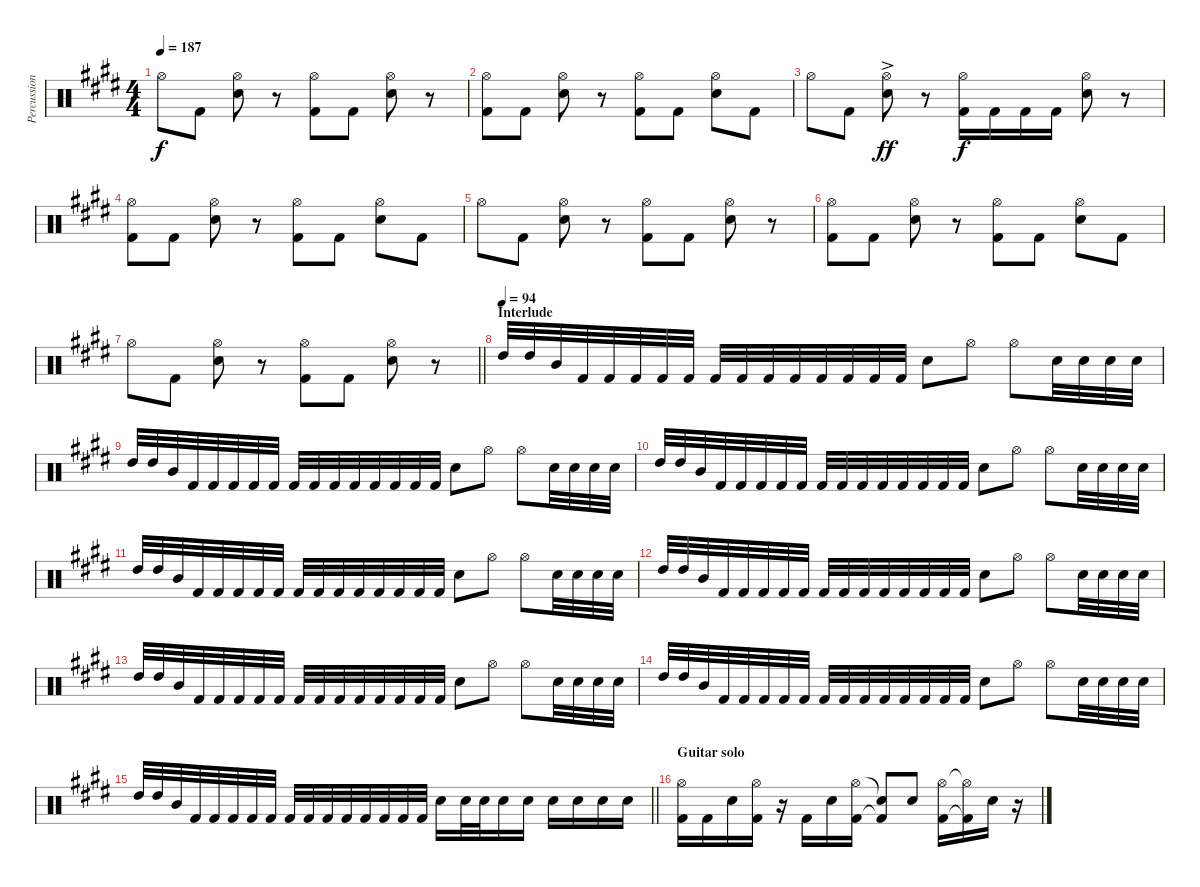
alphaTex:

\track ("Percussion" "Percussion") {instrument percussion}
\staff {score}
\articulation defaults
\ts (4 4)
\tempo 187
\clef neutral
\ks e "Hi-Hat (open)".8{dy f} "Kick (hit) 2".8
("Hi-Hat (open)" "Snare (hit) 2").8 r.8 ("Hi-Hat (open)" "Kick (hit) 2").8 "Kick (hit) 2".8 ("Hi-Hat (open)" "Snare (hit) 2").8 r.8 |
("Hi-Hat (open)" "Kick (hit) 2").8 "Kick (hit) 2".8 ("Hi-Hat (open)" "Snare (hit) 2").8 r.8 ("Hi-Hat (open)" "Kick (hit) 2").8 "Kick (hit) 2".8 ("Hi-Hat (open)" "Snare (hit) 2").8 "Kick (hit) 2".8 |
"Hi-Hat (open)".8 "Kick (hit) 2".8 ("Hi-Hat (open)"{ac} "Snare (hit) 2").8{dy ff} r.8 ("Hi-Hat (open)" "Kick (hit) 2").16{dy f} "Kick (hit) 2".16 "Kick (hit) 2".16 "Kick (hit) 2".16 ("Hi-Hat (open)" "Snare (hit) 2").8 r.8 |
("Hi-Hat (open)" "Kick (hit) 2").8 "Kick (hit) 2".8 ("Hi-Hat (open)" "Snare (hit) 2").8 r.8 ("Hi-Hat (open)" "Kick (hit) 2").8 "Kick (hit) 2".8 ("Hi-Hat (open)" "Snare (hit) 2").8 "Kick (hit) 2".8 |
"Hi-Hat (open)".8 "Kick (hit) 2".8 ("Hi-Hat (open)" "Snare (hit) 2").8 r.8 ("Hi-Hat (open)" "Kick (hit) 2").8 "Kick (hit) 2".8 ("Hi-Hat (open)" "Snare (hit) 2").8 r.8 |
("Hi-Hat (open)" "Kick (hit) 2").8 "Kick (hit) 2".8 ("Hi-Hat (open)" "Snare (hit) 2").8 r.8 ("Hi-Hat (open)" "Kick (hit) 2").8 "Kick (hit) 2".8 ("Hi-Hat (open)" "Snare (hit) 2").8 "Kick (hit) 2".8 |
\barLineRight lightlight "Hi-Hat (open)".8 "Kick (hit) 2".8
("Hi-Hat (open)" "Snare (hit) 2").8 r.8 ("Hi-Hat (open)" "Kick (hit) 2").8 "Kick (hit) 2".8 ("Hi-Hat (open)" "Snare (hit) 2").8 r.8 |
\section ("" "Interlude")
\tempo (94)
"High Tom (hit)".32 "High Tom (hit)".32 "Mid Tom (hit)".32 "Kick (hit) 2".32 "Kick (hit) 2".32 "Kick (hit) 2".32 "Kick (hit) 2".32 "Kick (hit) 2".32 "Kick (hit) 2".32 "Kick (hit) 2".32 "Kick (hit) 2".32 "Kick (hit) 2".32 "Kick (hit) 2".32 "Kick (hit) 2".32 "Kick (hit) 2".32 "Kick (hit) 2".32 "Snare (hit) 2".8 "Hi-Hat (open)".8 "Hi-Hat (open)".8 "Snare (hit) 2".32 "Snare (hit) 2".32 "Snare (hit) 2".32 "Snare (hit) 2".32 |
"High Tom (hit)".32 "High Tom (hit)".32 "Mid Tom (hit)".32 "Kick (hit) 2".32 "Kick (hit) 2".32 "Kick (hit) 2".32 "Kick (hit) 2".32 "Kick (hit) 2".32 "Kick (hit) 2".32 "Kick (hit) 2".32 "Kick (hit) 2".32 "Kick (hit) 2".32 "Kick (hit) 2".32 "Kick (hit) 2".32 "Kick (hit) 2".32 "Kick (hit) 2".32 "Snare (hit) 2".8 "Hi-Hat (open)".8 "Hi-Hat (open)".8 "Snare (hit) 2".32 "Snare (hit) 2".32 "Snare (hit) 2".32 "Snare (hit) 2".32 |
"High Tom (hit)".32 "High Tom (hit)".32 "Mid Tom (hit)".32 "Kick (hit) 2".32 "Kick (hit) 2".32 "Kick (hit) 2".32 "Kick (hit) 2".32 "Kick (hit) 2".32 "Kick (hit) 2".32 "Kick (hit) 2".32 "Kick (hit) 2".32 "Kick (hit) 2".32 "Kick (hit) 2".32 "Kick (hit) 2".32 "Kick (hit) 2".32 "Kick (hit) 2".32 "Snare (hit) 2".8 "Hi-Hat (open)".8 "Hi-Hat (open)".8 "Snare (hit) 2".32 "Snare (hit) 2".32 "Snare (hit) 2".32 "Snare (hit) 2".32 |
"High Tom (hit)".32 "High Tom (hit)".32 "Mid Tom (hit)".32 "Kick (hit) 2".32 "Kick (hit) 2".32 "Kick (hit) 2".32 "Kick (hit) 2".32 "Kick (hit) 2".32 "Kick (hit) 2".32 "Kick (hit) 2".32 "Kick (hit) 2".32 "Kick (hit) 2".32 "Kick (hit) 2".32 "Kick (hit) 2".32 "Kick (hit) 2".32 "Kick (hit) 2".32 "Snare (hit) 2".8 "Hi-Hat (open)".8 "Hi-Hat (open)".8 "Snare (hit) 2".32 "Snare (hit) 2".32 "Snare (hit) 2".32 "Snare (hit) 2".32 |
"High Tom (hit)".32 "High Tom (hit)".32 "Mid Tom (hit)".32 "Kick (hit) 2".32 "Kick (hit) 2".32 "Kick (hit) 2".32 "Kick (hit) 2".32 "Kick (hit) 2".32 "Kick (hit) 2".32 "Kick (hit) 2".32 "Kick (hit) 2".32 "Kick (hit) 2".32 "Kick (hit) 2".32 "Kick (hit) 2".32 "Kick (hit) 2".32 "Kick (hit) 2".32 "Snare (hit) 2".8 "Hi-Hat (open)".8 "Hi-Hat (open)".8 "Snare (hit) 2".32 "Snare (hit) 2".32 "Snare (hit) 2".32 "Snare (hit) 2".32 |
"High Tom (hit)".32 "High Tom (hit)".32 "Mid Tom (hit)".32 "Kick (hit) 2".32 "Kick (hit) 2".32 "Kick (hit) 2".32 "Kick (hit) 2".32 "Kick (hit) 2".32 "Kick (hit) 2".32 "Kick (hit) 2".32 "Kick (hit) 2".32 "Kick (hit) 2".32 "Kick (hit) 2".32 "Kick (hit) 2".32 "Kick (hit) 2".32 "Kick (hit) 2".32 "Snare (hit) 2".8 "Hi-Hat (open)".8 "Hi-Hat (open)".8 "Snare (hit) 2".32 "Snare (hit) 2".32 "Snare (hit) 2".32 "Snare (hit) 2".32 |
"High Tom (hit)".32 "High Tom (hit)".32 "Mid Tom (hit)".32 "Kick (hit) 2".32 "Kick (hit) 2".32 "Kick (hit) 2".32 "Kick (hit) 2".32 "Kick (hit) 2".32 "Kick (hit) 2".32 "Kick (hit) 2".32 "Kick (hit) 2".32 "Kick (hit) 2".32 "Kick (hit) 2".32 "Kick (hit) 2".32 "Kick (hit) 2".32 "Kick (hit) 2".32 "Snare (hit) 2".8 "Hi-Hat (open)".8 "Hi-Hat (open)".8 "Snare (hit) 2".32 "Snare (hit) 2".32 "Snare (hit) 2".32 "Snare (hit) 2".32 |
\barLineRight lightlight "High Tom (hit)".32 "High Tom (hit)".32 "Mid Tom (hit)".32 "Kick (hit) 2".32 "Kick (hit) 2".32 "Kick (hit) 2".32 "Kick (hit) 2".32 "Kick (hit) 2".32 "Kick (hit) 2".32 "Kick (hit) 2".32 "Kick (hit) 2".32 "Kick (hit) 2".32 "Kick (hit) 2".32 "Kick (hit) 2".32 "Kick (hit) 2".32 "Kick (hit) 2".32 "Snare (hit) 2".16 "Snare (hit) 2".32 "Snare (hit) 2".32 "Snare (hit) 2".16 "Snare (hit) 2".16 "Snare (hit) 2".16 "Snare (hit) 2".16 "Snare (hit) 2".16 "Snare (hit) 2".16
|
\section ("" "Guitar solo")
("Hi-Hat (open)" "Kick (hit) 2").16 "Kick (hit) 2".16 "Snare (hit) 2".16 ("Hi-Hat (open)" "Kick (hit) 2").16 r.16 "Kick (hit) 2".16 "Snare (hit) 2".16 ("Hi-Hat (open)" "Kick (hit) 2").16 ("Snare (hit)"{t} "Kick (hit) 2"{t}).8 "Snare (hit) 2".8 ("Hi-Hat (open)" "Kick (hit) 2").16 ("Hi-Hat (open)"{t} "Kick (hit) 2"{t}).16 "Snare (hit) 2".16 r.16
